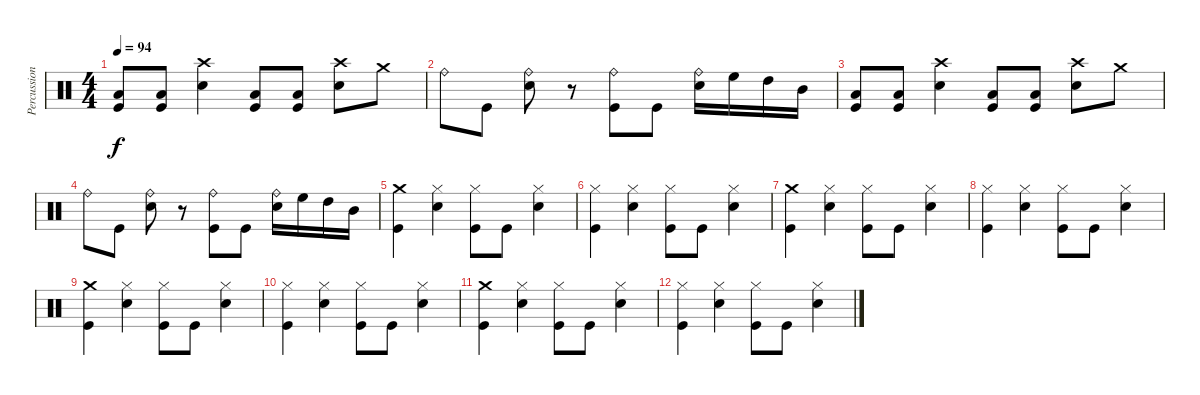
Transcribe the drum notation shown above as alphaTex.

\track ("Percussion" "Percussion") {instrument percussion}
\staff {score}
\articulation defaults
\ts (4 4)
\tempo 94
\clef neutral
\ks c
("Low Tom (hit)" "Kick (hit)").8{dy f} ("Low Tom (hit)" "Kick (hit)").8 ("Crash high (hit)" "Snare (hit) 2").4 ("Low Tom (hit)" "Kick (hit)").8 ("Low Tom (hit)" "Kick (hit)").8 ("Crash high (hit)" "Snare (hit) 2").8 "Crash medium (hit)".8 |
"Ride (bell)".8 "Kick (hit)".8 ("Ride (bell)" "Snare (hit) 2").8 r.8 ("Ride (bell)" "Kick (hit)").8 "Kick (hit)".8 ("Ride (bell)" "Snare (hit) 2").16 "High Floor Tom (hit)".16 "High Tom (hit)".16 "Mid Tom (hit)".16 |
("Low Tom (hit)" "Kick (hit)").8 ("Low Tom (hit)" "Kick (hit)").8 ("Crash high (hit)" "Snare (hit) 2").4 ("Low Tom (hit)" "Kick (hit)").8 ("Low Tom (hit)" "Kick (hit)").8 ("Crash high (hit)" "Snare (hit) 2").8 "Crash medium (hit)".8 |
"Ride (bell)".8 "Kick (hit)".8 ("Ride (bell)" "Snare (hit) 2").8 r.8 ("Ride (bell)" "Kick (hit)").8 "Kick (hit)".8 ("Ride (bell)" "Snare (hit) 2").16 "High Floor Tom (hit)".16 "High Tom (hit)".16 "Mid Tom (hit)".16 |
("Crash medium (hit)" "Kick (hit)").4 ("Hi-Hat (closed)" "Snare (hit) 2").4 ("Hi-Hat (closed)" "Kick (hit)").8 "Kick (hit)".8 ("Hi-Hat (closed)" "Snare (hit) 2").4 |
("Hi-Hat (closed)" "Kick (hit)").4 ("Hi-Hat (closed)" "Snare (hit) 2").4 ("Hi-Hat (closed)" "Kick (hit)").8 "Kick (hit)".8 ("Hi-Hat (closed)" "Snare (hit) 2").4 |
("Crash medium (hit)" "Kick (hit)").4 ("Hi-Hat (closed)" "Snare (hit) 2").4 ("Hi-Hat (closed)" "Kick (hit)").8 "Kick (hit)".8 ("Hi-Hat (closed)" "Snare (hit) 2").4 |
("Hi-Hat (closed)" "Kick (hit)").4 ("Hi-Hat (closed)" "Snare (hit) 2").4 ("Hi-Hat (closed)" "Kick (hit)").8 "Kick (hit)".8 ("Hi-Hat (closed)" "Snare (hit) 2").4 |
("Crash medium (hit)" "Kick (hit)").4 ("Hi-Hat (closed)" "Snare (hit) 2").4 ("Hi-Hat (closed)" "Kick (hit)").8 "Kick (hit)".8 ("Hi-Hat (closed)" "Snare (hit) 2").4 |
("Hi-Hat (closed)" "Kick (hit)").4 ("Hi-Hat (closed)" "Snare (hit) 2").4 ("Hi-Hat (closed)" "Kick (hit)").8 "Kick (hit)".8 ("Hi-Hat (closed)" "Snare (hit) 2").4 |
("Crash medium (hit)" "Kick (hit)").4 ("Hi-Hat (closed)" "Snare (hit) 2").4 ("Hi-Hat (closed)" "Kick (hit)").8 "Kick (hit)".8 ("Hi-Hat (closed)" "Snare (hit) 2").4 |
("Hi-Hat (closed)" "Kick (hit)").4 ("Hi-Hat (closed)" "Snare (hit) 2").4 ("Hi-Hat (closed)" "Kick (hit)").8 "Kick (hit)".8 ("Hi-Hat (closed)" "Snare (hit) 2").4
